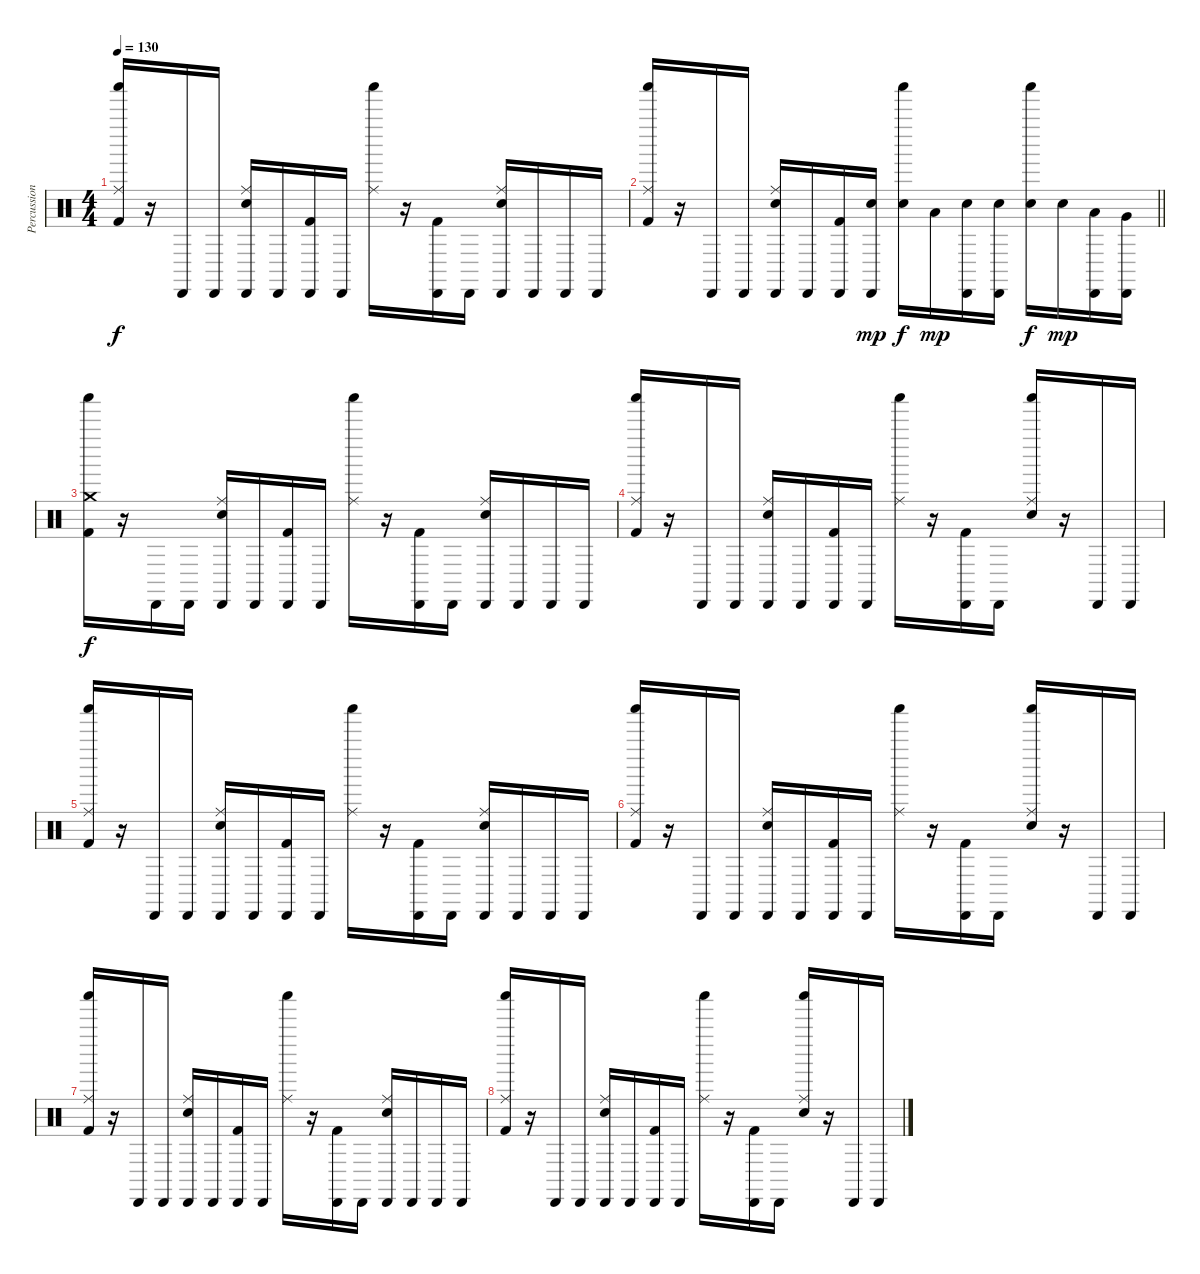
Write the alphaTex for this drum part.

\track ("Percussion" "Percussion") {instrument percussion}
\staff {score}
\articulation defaults
\ts (4 4)
\tempo 130
\clef neutral
\ks c
("Ride (middle)" "Shaker (hit)" "Kick (hit) 2").16{dy f} r.16 "Cabasa (hit)".16 "Cabasa (hit)".16 ("Ride (middle)" "Cabasa (hit)" "Electric Snare (hit)").16 "Cabasa (hit)".16 ("Cabasa (hit)" "Kick (hit) 2").16 "Cabasa (hit)".16 ("Ride (middle)" "Shaker (hit)").16 r.16 ("Cabasa (hit)" "Kick (hit) 2").16 "Cabasa (hit)".16 ("Ride (middle)" "Cabasa (hit)" "Electric Snare (hit)").16 "Cabasa (hit)".16 "Cabasa (hit)".16 "Cabasa (hit)".16 |
\barLineRight lightlight
("Ride (middle)" "Shaker (hit)" "Kick (hit) 2").16 r.16 "Cabasa (hit)".16 "Cabasa (hit)".16 ("Ride (middle)" "Cabasa (hit)" "Electric Snare (hit)").16 "Cabasa (hit)".16 ("Cabasa (hit)" "Kick (hit) 2").16 ("Cabasa (hit)" "Electric Snare (hit)").16{dy mp} ("Shaker (hit)" "Electric Snare (hit)").16{dy f} "Low Tom (hit)".16{dy mp} ("Cabasa (hit)" "Electric Snare (hit)").16 ("Cabasa (hit)" "Electric Snare (hit)").16 ("Shaker (hit)" "Electric Snare (hit)").16{dy f} "Electric Snare (hit)".16{dy mp} ("Cabasa (hit)" "Low Tom (hit)").16 ("Cabasa (hit)" "Very Low Tom (hit)").16 |
("Crash medium (hit)" "Shaker (hit)" "Kick (hit) 2").16{dy f} r.16 "Cabasa (hit)".16 "Cabasa (hit)".16 ("Ride (middle)" "Cabasa (hit)" "Electric Snare (hit)").16 "Cabasa (hit)".16 ("Cabasa (hit)" "Kick (hit) 2").16 "Cabasa (hit)".16 ("Ride (middle)" "Shaker (hit)").16 r.16 ("Cabasa (hit)" "Kick (hit) 2").16 "Cabasa (hit)".16 ("Ride (middle)" "Cabasa (hit)" "Electric Snare (hit)").16 "Cabasa (hit)".16 "Cabasa (hit)".16 "Cabasa (hit)".16 |
("Ride (middle)" "Shaker (hit)" "Kick (hit) 2").16 r.16 "Cabasa (hit)".16 "Cabasa (hit)".16 ("Ride (middle)" "Cabasa (hit)" "Electric Snare (hit)").16 "Cabasa (hit)".16 ("Cabasa (hit)" "Kick (hit) 2").16 "Cabasa (hit)".16 ("Ride (middle)" "Shaker (hit)").16 r.16 ("Cabasa (hit)" "Kick (hit) 2").16 "Cabasa (hit)".16 ("Ride (middle)" "Shaker (hit)" "Electric Snare (hit)").16 r.16 "Cabasa (hit)".16 "Cabasa (hit)".16 |
("Ride (middle)" "Shaker (hit)" "Kick (hit) 2").16 r.16 "Cabasa (hit)".16 "Cabasa (hit)".16 ("Ride (middle)" "Cabasa (hit)" "Electric Snare (hit)").16 "Cabasa (hit)".16 ("Cabasa (hit)" "Kick (hit) 2").16 "Cabasa (hit)".16 ("Ride (middle)" "Shaker (hit)").16 r.16 ("Cabasa (hit)" "Kick (hit) 2").16 "Cabasa (hit)".16 ("Ride (middle)" "Cabasa (hit)" "Electric Snare (hit)").16 "Cabasa (hit)".16 "Cabasa (hit)".16 "Cabasa (hit)".16 |
("Ride (middle)" "Shaker (hit)" "Kick (hit) 2").16 r.16 "Cabasa (hit)".16 "Cabasa (hit)".16 ("Ride (middle)" "Cabasa (hit)" "Electric Snare (hit)").16 "Cabasa (hit)".16 ("Cabasa (hit)" "Kick (hit) 2").16 "Cabasa (hit)".16 ("Ride (middle)" "Shaker (hit)").16 r.16 ("Cabasa (hit)" "Kick (hit) 2").16 "Cabasa (hit)".16 ("Ride (middle)" "Shaker (hit)" "Electric Snare (hit)").16 r.16 "Cabasa (hit)".16 "Cabasa (hit)".16 |
("Ride (middle)" "Shaker (hit)" "Kick (hit) 2").16 r.16 "Cabasa (hit)".16 "Cabasa (hit)".16 ("Ride (middle)" "Cabasa (hit)" "Electric Snare (hit)").16 "Cabasa (hit)".16 ("Cabasa (hit)" "Kick (hit) 2").16 "Cabasa (hit)".16 ("Ride (middle)" "Shaker (hit)").16 r.16 ("Cabasa (hit)" "Kick (hit) 2").16 "Cabasa (hit)".16 ("Ride (middle)" "Cabasa (hit)" "Electric Snare (hit)").16 "Cabasa (hit)".16 "Cabasa (hit)".16 "Cabasa (hit)".16 |
("Ride (middle)" "Shaker (hit)" "Kick (hit) 2").16 r.16 "Cabasa (hit)".16 "Cabasa (hit)".16 ("Ride (middle)" "Cabasa (hit)" "Electric Snare (hit)").16 "Cabasa (hit)".16 ("Cabasa (hit)" "Kick (hit) 2").16 "Cabasa (hit)".16 ("Ride (middle)" "Shaker (hit)").16 r.16 ("Cabasa (hit)" "Kick (hit) 2").16 "Cabasa (hit)".16 ("Ride (middle)" "Shaker (hit)" "Electric Snare (hit)").16 r.16 "Cabasa (hit)".16 "Cabasa (hit)".16
